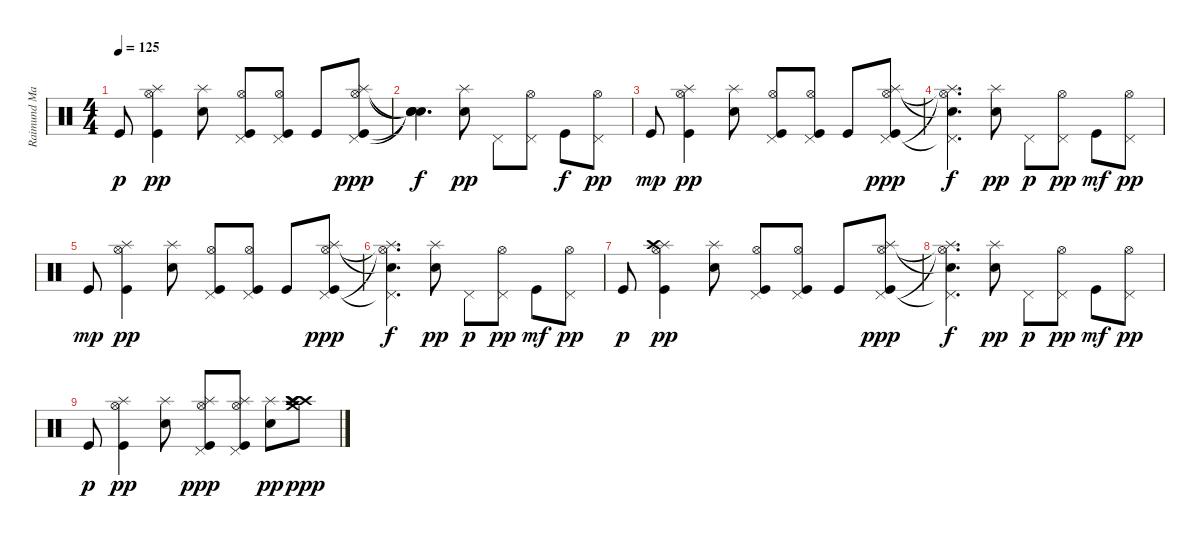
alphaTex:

\track ("Raimund Marasigan (Drums)" "Raimund Ma") {instrument percussion}
\staff {score}
\articulation defaults
\ts (4 4)
\tempo 125
\clef neutral
\ks c "Kick (hit)".8{dy p}
("Kick (hit)" "Splash (hit)" "Hi-Hat (open)").4{dy pp} ("Electric Snare (hit)" "Splash (hit)").8 ("Kick (hit)" "Pedal Hi-Hat (hit)" "Hi-Hat (open)").8 ("Kick (hit)" "Pedal Hi-Hat (hit)" "Hi-Hat (open)").8 "Kick (hit)".8 ("Kick (hit)" "Pedal Hi-Hat (hit)" "Hi-Hat (open)" "Splash (hit)").8{dy ppp} |
("Snare (hit)"{t} "Snare (hit)"{t} "Snare (hit)"{t} "Snare (hit)"{t}).4{d dy f} ("Electric Snare (hit)" "Splash (hit)").8{dy pp} "Pedal Hi-Hat (hit)".8 ("Pedal Hi-Hat (hit)" "Hi-Hat (open)").8 "Kick (hit)".8{dy f} ("Pedal Hi-Hat (hit)" "Hi-Hat (open)").8{dy pp} |
"Kick (hit)".8{dy mp} ("Kick (hit)" "Splash (hit)" "Hi-Hat (open)").4{dy pp} ("Electric Snare (hit)" "Splash (hit)").8 ("Kick (hit)" "Pedal Hi-Hat (hit)" "Hi-Hat (open)").8 ("Kick (hit)" "Pedal Hi-Hat (hit)" "Hi-Hat (open)").8 "Kick (hit)".8 ("Kick (hit)" "Pedal Hi-Hat (hit)" "Hi-Hat (open)" "Splash (hit)").8{dy ppp} |
("Pedal Hi-Hat (hit)"{t} "Hi-Hat (open)"{t} "Splash (hit)"{t} "Snare (hit)"{t}).4{d dy f} ("Electric Snare (hit)" "Splash (hit)").8{dy pp} "Pedal Hi-Hat (hit)".8{dy p} ("Pedal Hi-Hat (hit)" "Hi-Hat (open)").8{dy pp} "Kick (hit)".8{dy mf} ("Pedal Hi-Hat (hit)" "Hi-Hat (open)").8{dy pp} |
"Kick (hit)".8{dy mp} ("Kick (hit)" "Splash (hit)" "Hi-Hat (open)").4{dy pp} ("Electric Snare (hit)" "Splash (hit)").8 ("Kick (hit)" "Pedal Hi-Hat (hit)" "Hi-Hat (open)").8 ("Kick (hit)" "Pedal Hi-Hat (hit)" "Hi-Hat (open)").8 "Kick (hit)".8 ("Kick (hit)" "Pedal Hi-Hat (hit)" "Hi-Hat (open)" "Splash (hit)").8{dy ppp} |
("Pedal Hi-Hat (hit)"{t} "Hi-Hat (open)"{t} "Splash (hit)"{t} "Snare (hit)"{t}).4{d dy f} ("Electric Snare (hit)" "Splash (hit)").8{dy pp} "Pedal Hi-Hat (hit)".8{dy p} ("Pedal Hi-Hat (hit)" "Hi-Hat (open)").8{dy pp} "Kick (hit)".8{dy mf} ("Pedal Hi-Hat (hit)" "Hi-Hat (open)").8{dy pp} |
"Kick (hit)".8{dy p} ("Kick (hit)" "Splash (hit)" "Hi-Hat (open)" "Crash high (hit)").4{dy pp} ("Electric Snare (hit)" "Splash (hit)").8 ("Kick (hit)" "Pedal Hi-Hat (hit)" "Hi-Hat (open)").8 ("Kick (hit)" "Pedal Hi-Hat (hit)" "Hi-Hat (open)").8 "Kick (hit)".8 ("Kick (hit)" "Pedal Hi-Hat (hit)" "Hi-Hat (open)" "Splash (hit)").8{dy ppp} |
("Pedal Hi-Hat (hit)"{t} "Hi-Hat (open)"{t} "Splash (hit)"{t} "Snare (hit)"{t}).4{d dy f} ("Electric Snare (hit)" "Splash (hit)").8{dy pp} "Pedal Hi-Hat (hit)".8{dy p} ("Pedal Hi-Hat (hit)" "Hi-Hat (open)").8{dy pp} "Kick (hit)".8{dy mf} ("Pedal Hi-Hat (hit)" "Hi-Hat (open)").8{dy pp} |
"Kick (hit)".8{dy p} ("Kick (hit)" "Splash (hit)" "Hi-Hat (open)").4{dy pp} ("Electric Snare (hit)" "Splash (hit)").8 ("Kick (hit)" "Pedal Hi-Hat (hit)" "Hi-Hat (open)" "Splash (hit)").8{dy ppp} ("Kick (hit)" "Pedal Hi-Hat (hit)" "Hi-Hat (open)" "Splash (hit)").8 ("Electric Snare (hit)" "Splash (hit)").8{dy pp} ("Crash high (hit)" "Splash (hit)" "Crash high (hit)" "Crash high (hit)" "Crash medium (hit)").8{dy ppp}
